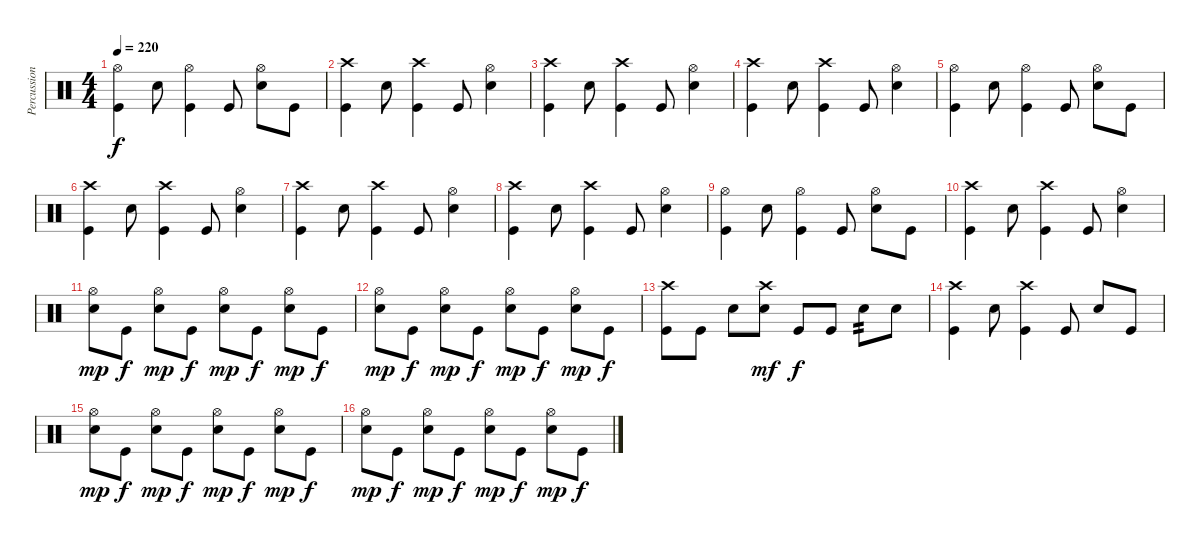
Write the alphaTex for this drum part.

\track ("Percussion" "Percussion") {instrument percussion}
\staff {score}
\articulation defaults
\ts (4 4)
\tempo 220
\clef neutral
\ks c
("Hi-Hat (open)" "Kick (hit)").4{dy f} "Electric Snare (hit)".8 ("Hi-Hat (open)" "Kick (hit)").4 "Kick (hit)".8 ("Hi-Hat (open)" "Electric Snare (hit)").8 "Kick (hit)".8 |
("Crash high (hit)" "Kick (hit)").4 "Electric Snare (hit)".8 ("Crash high (hit)" "Kick (hit)").4 "Kick (hit)".8 ("Hi-Hat (open)" "Electric Snare (hit)").4 |
("Crash high (hit)" "Kick (hit)").4 "Electric Snare (hit)".8 ("Crash high (hit)" "Kick (hit)").4 "Kick (hit)".8 ("Hi-Hat (open)" "Electric Snare (hit)").4 |
("Crash high (hit)" "Kick (hit)").4 "Electric Snare (hit)".8 ("Crash high (hit)" "Kick (hit)").4 "Kick (hit)".8 ("Hi-Hat (open)" "Electric Snare (hit)").4 |
("Hi-Hat (open)" "Kick (hit)").4 "Electric Snare (hit)".8 ("Hi-Hat (open)" "Kick (hit)").4 "Kick (hit)".8 ("Hi-Hat (open)" "Electric Snare (hit)").8 "Kick (hit)".8 |
("Crash high (hit)" "Kick (hit)").4 "Electric Snare (hit)".8 ("Crash high (hit)" "Kick (hit)").4 "Kick (hit)".8 ("Hi-Hat (open)" "Electric Snare (hit)").4 |
("Crash high (hit)" "Kick (hit)").4 "Electric Snare (hit)".8 ("Crash high (hit)" "Kick (hit)").4 "Kick (hit)".8 ("Hi-Hat (open)" "Electric Snare (hit)").4 |
("Crash high (hit)" "Kick (hit)").4 "Electric Snare (hit)".8 ("Crash high (hit)" "Kick (hit)").4 "Kick (hit)".8 ("Hi-Hat (open)" "Electric Snare (hit)").4 |
("Hi-Hat (open)" "Kick (hit)").4 "Electric Snare (hit)".8 ("Hi-Hat (open)" "Kick (hit)").4 "Kick (hit)".8 ("Hi-Hat (open)" "Electric Snare (hit)").8 "Kick (hit)".8 |
("Crash high (hit)" "Kick (hit)").4 "Electric Snare (hit)".8 ("Crash high (hit)" "Kick (hit)").4 "Kick (hit)".8 ("Hi-Hat (open)" "Electric Snare (hit)").4 |
("Hi-Hat (open)" "Electric Snare (hit)").8{dy mp} "Kick (hit)".8{dy f} ("Hi-Hat (open)" "Electric Snare (hit)").8{dy mp} "Kick (hit)".8{dy f} ("Hi-Hat (open)" "Electric Snare (hit)").8{dy mp} "Kick (hit)".8{dy f} ("Hi-Hat (open)" "Electric Snare (hit)").8{dy mp} "Kick (hit)".8{dy f} |
("Hi-Hat (open)" "Electric Snare (hit)").8{dy mp} "Kick (hit)".8{dy f} ("Hi-Hat (open)" "Electric Snare (hit)").8{dy mp} "Kick (hit)".8{dy f} ("Hi-Hat (open)" "Electric Snare (hit)").8{dy mp} "Kick (hit)".8{dy f} ("Hi-Hat (open)" "Electric Snare (hit)").8{dy mp} "Kick (hit)".8{dy f} |
("Crash high (hit)" "Kick (hit)").8 "Kick (hit)".8 "Electric Snare (hit)".8 ("Crash high (hit)" "Electric Snare (hit)").8{dy mf} "Kick (hit)".8{dy f} "Kick (hit)".8 "Electric Snare (hit)".8{tp 2} "Electric Snare (hit)".8 |
("Crash high (hit)" "Kick (hit)").4 "Electric Snare (hit)".8 ("Crash high (hit)" "Kick (hit)").4 "Kick (hit)".8 "Electric Snare (hit)".8 "Kick (hit)".8 |
("Hi-Hat (open)" "Electric Snare (hit)").8{dy mp} "Kick (hit)".8{dy f} ("Hi-Hat (open)" "Electric Snare (hit)").8{dy mp} "Kick (hit)".8{dy f} ("Hi-Hat (open)" "Electric Snare (hit)").8{dy mp} "Kick (hit)".8{dy f} ("Hi-Hat (open)" "Electric Snare (hit)").8{dy mp} "Kick (hit)".8{dy f} |
("Hi-Hat (open)" "Electric Snare (hit)").8{dy mp} "Kick (hit)".8{dy f} ("Hi-Hat (open)" "Electric Snare (hit)").8{dy mp} "Kick (hit)".8{dy f} ("Hi-Hat (open)" "Electric Snare (hit)").8{dy mp} "Kick (hit)".8{dy f} ("Hi-Hat (open)" "Electric Snare (hit)").8{dy mp} "Kick (hit)".8{dy f}
